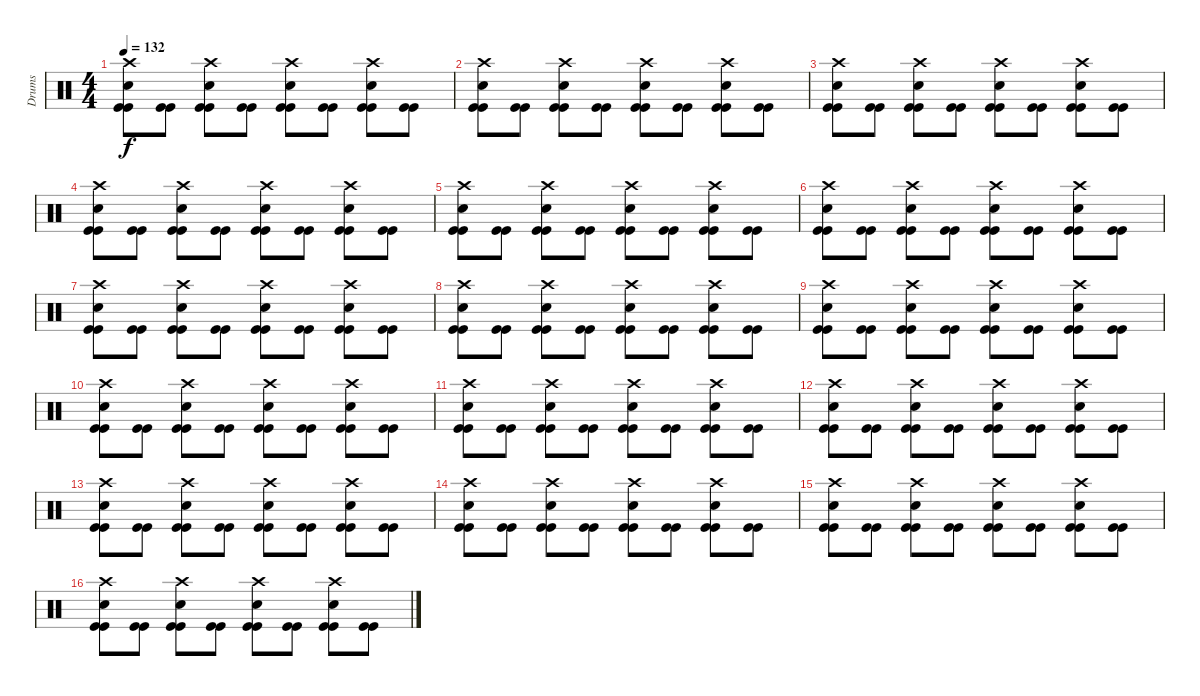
\track ("Drums" "Drums") {instrument percussion}
\staff {score}
\articulation defaults
\ts (4 4)
\tempo 132
\clef neutral
\ks c
("Crash high (hit)" "Electric Snare (hit)" "Kick (hit)" "Kick (hit)").8{dy f} ("Kick (hit)" "Kick (hit)").8 ("Crash high (hit)" "Electric Snare (hit)" "Kick (hit)" "Kick (hit)").8 ("Kick (hit)" "Kick (hit)").8 ("Crash high (hit)" "Electric Snare (hit)" "Kick (hit)" "Kick (hit)").8 ("Kick (hit)" "Kick (hit)").8 ("Crash high (hit)" "Electric Snare (hit)" "Kick (hit)" "Kick (hit)").8 ("Kick (hit)" "Kick (hit)").8 |
("Crash high (hit)" "Electric Snare (hit)" "Kick (hit)" "Kick (hit)").8 ("Kick (hit)" "Kick (hit)").8 ("Crash high (hit)" "Electric Snare (hit)" "Kick (hit)" "Kick (hit)").8 ("Kick (hit)" "Kick (hit)").8 ("Crash high (hit)" "Electric Snare (hit)" "Kick (hit)" "Kick (hit)").8 ("Kick (hit)" "Kick (hit)").8 ("Crash high (hit)" "Electric Snare (hit)" "Kick (hit)" "Kick (hit)").8 ("Kick (hit)" "Kick (hit)").8 |
("Crash high (hit)" "Electric Snare (hit)" "Kick (hit)" "Kick (hit)").8 ("Kick (hit)" "Kick (hit)").8 ("Crash high (hit)" "Electric Snare (hit)" "Kick (hit)" "Kick (hit)").8 ("Kick (hit)" "Kick (hit)").8 ("Crash high (hit)" "Electric Snare (hit)" "Kick (hit)" "Kick (hit)").8 ("Kick (hit)" "Kick (hit)").8 ("Crash high (hit)" "Electric Snare (hit)" "Kick (hit)" "Kick (hit)").8 ("Kick (hit)" "Kick (hit)").8 |
("Crash high (hit)" "Electric Snare (hit)" "Kick (hit)" "Kick (hit)").8 ("Kick (hit)" "Kick (hit)").8 ("Crash high (hit)" "Electric Snare (hit)" "Kick (hit)" "Kick (hit)").8 ("Kick (hit)" "Kick (hit)").8 ("Crash high (hit)" "Electric Snare (hit)" "Kick (hit)" "Kick (hit)").8 ("Kick (hit)" "Kick (hit)").8 ("Crash high (hit)" "Electric Snare (hit)" "Kick (hit)" "Kick (hit)").8 ("Kick (hit)" "Kick (hit)").8 |
("Crash high (hit)" "Electric Snare (hit)" "Kick (hit)" "Kick (hit)").8 ("Kick (hit)" "Kick (hit)").8 ("Crash high (hit)" "Electric Snare (hit)" "Kick (hit)" "Kick (hit)").8 ("Kick (hit)" "Kick (hit)").8 ("Crash high (hit)" "Electric Snare (hit)" "Kick (hit)" "Kick (hit)").8 ("Kick (hit)" "Kick (hit)").8 ("Crash high (hit)" "Electric Snare (hit)" "Kick (hit)" "Kick (hit)").8 ("Kick (hit)" "Kick (hit)").8 |
("Crash high (hit)" "Electric Snare (hit)" "Kick (hit)" "Kick (hit)").8 ("Kick (hit)" "Kick (hit)").8 ("Crash high (hit)" "Electric Snare (hit)" "Kick (hit)" "Kick (hit)").8 ("Kick (hit)" "Kick (hit)").8 ("Crash high (hit)" "Electric Snare (hit)" "Kick (hit)" "Kick (hit)").8 ("Kick (hit)" "Kick (hit)").8 ("Crash high (hit)" "Electric Snare (hit)" "Kick (hit)" "Kick (hit)").8 ("Kick (hit)" "Kick (hit)").8 |
("Crash high (hit)" "Electric Snare (hit)" "Kick (hit)" "Kick (hit)").8 ("Kick (hit)" "Kick (hit)").8 ("Crash high (hit)" "Electric Snare (hit)" "Kick (hit)" "Kick (hit)").8 ("Kick (hit)" "Kick (hit)").8 ("Crash high (hit)" "Electric Snare (hit)" "Kick (hit)" "Kick (hit)").8 ("Kick (hit)" "Kick (hit)").8 ("Crash high (hit)" "Electric Snare (hit)" "Kick (hit)" "Kick (hit)").8 ("Kick (hit)" "Kick (hit)").8 |
("Crash high (hit)" "Electric Snare (hit)" "Kick (hit)" "Kick (hit)").8 ("Kick (hit)" "Kick (hit)").8 ("Crash high (hit)" "Electric Snare (hit)" "Kick (hit)" "Kick (hit)").8 ("Kick (hit)" "Kick (hit)").8 ("Crash high (hit)" "Electric Snare (hit)" "Kick (hit)" "Kick (hit)").8 ("Kick (hit)" "Kick (hit)").8 ("Crash high (hit)" "Electric Snare (hit)" "Kick (hit)" "Kick (hit)").8 ("Kick (hit)" "Kick (hit)").8 |
("Crash high (hit)" "Electric Snare (hit)" "Kick (hit)" "Kick (hit)").8 ("Kick (hit)" "Kick (hit)").8 ("Crash high (hit)" "Electric Snare (hit)" "Kick (hit)" "Kick (hit)").8 ("Kick (hit)" "Kick (hit)").8 ("Crash high (hit)" "Electric Snare (hit)" "Kick (hit)" "Kick (hit)").8 ("Kick (hit)" "Kick (hit)").8 ("Crash high (hit)" "Electric Snare (hit)" "Kick (hit)" "Kick (hit)").8 ("Kick (hit)" "Kick (hit)").8 |
("Crash high (hit)" "Electric Snare (hit)" "Kick (hit)" "Kick (hit)").8 ("Kick (hit)" "Kick (hit)").8 ("Crash high (hit)" "Electric Snare (hit)" "Kick (hit)" "Kick (hit)").8 ("Kick (hit)" "Kick (hit)").8 ("Crash high (hit)" "Electric Snare (hit)" "Kick (hit)" "Kick (hit)").8 ("Kick (hit)" "Kick (hit)").8 ("Crash high (hit)" "Electric Snare (hit)" "Kick (hit)" "Kick (hit)").8 ("Kick (hit)" "Kick (hit)").8 |
("Crash high (hit)" "Electric Snare (hit)" "Kick (hit)" "Kick (hit)").8 ("Kick (hit)" "Kick (hit)").8 ("Crash high (hit)" "Electric Snare (hit)" "Kick (hit)" "Kick (hit)").8 ("Kick (hit)" "Kick (hit)").8 ("Crash high (hit)" "Electric Snare (hit)" "Kick (hit)" "Kick (hit)").8 ("Kick (hit)" "Kick (hit)").8 ("Crash high (hit)" "Electric Snare (hit)" "Kick (hit)" "Kick (hit)").8 ("Kick (hit)" "Kick (hit)").8 |
("Crash high (hit)" "Electric Snare (hit)" "Kick (hit)" "Kick (hit)").8 ("Kick (hit)" "Kick (hit)").8 ("Crash high (hit)" "Electric Snare (hit)" "Kick (hit)" "Kick (hit)").8 ("Kick (hit)" "Kick (hit)").8 ("Crash high (hit)" "Electric Snare (hit)" "Kick (hit)" "Kick (hit)").8 ("Kick (hit)" "Kick (hit)").8 ("Crash high (hit)" "Electric Snare (hit)" "Kick (hit)" "Kick (hit)").8 ("Kick (hit)" "Kick (hit)").8 |
("Crash high (hit)" "Electric Snare (hit)" "Kick (hit)" "Kick (hit)").8 ("Kick (hit)" "Kick (hit)").8 ("Crash high (hit)" "Electric Snare (hit)" "Kick (hit)" "Kick (hit)").8 ("Kick (hit)" "Kick (hit)").8 ("Crash high (hit)" "Electric Snare (hit)" "Kick (hit)" "Kick (hit)").8 ("Kick (hit)" "Kick (hit)").8 ("Crash high (hit)" "Electric Snare (hit)" "Kick (hit)" "Kick (hit)").8 ("Kick (hit)" "Kick (hit)").8 |
("Crash high (hit)" "Electric Snare (hit)" "Kick (hit)" "Kick (hit)").8 ("Kick (hit)" "Kick (hit)").8 ("Crash high (hit)" "Electric Snare (hit)" "Kick (hit)" "Kick (hit)").8 ("Kick (hit)" "Kick (hit)").8 ("Crash high (hit)" "Electric Snare (hit)" "Kick (hit)" "Kick (hit)").8 ("Kick (hit)" "Kick (hit)").8 ("Crash high (hit)" "Electric Snare (hit)" "Kick (hit)" "Kick (hit)").8 ("Kick (hit)" "Kick (hit)").8 |
("Crash high (hit)" "Electric Snare (hit)" "Kick (hit)" "Kick (hit)").8 ("Kick (hit)" "Kick (hit)").8 ("Crash high (hit)" "Electric Snare (hit)" "Kick (hit)" "Kick (hit)").8 ("Kick (hit)" "Kick (hit)").8 ("Crash high (hit)" "Electric Snare (hit)" "Kick (hit)" "Kick (hit)").8 ("Kick (hit)" "Kick (hit)").8 ("Crash high (hit)" "Electric Snare (hit)" "Kick (hit)" "Kick (hit)").8 ("Kick (hit)" "Kick (hit)").8 |
("Crash high (hit)" "Electric Snare (hit)" "Kick (hit)" "Kick (hit)").8 ("Kick (hit)" "Kick (hit)").8 ("Crash high (hit)" "Electric Snare (hit)" "Kick (hit)" "Kick (hit)").8 ("Kick (hit)" "Kick (hit)").8 ("Crash high (hit)" "Electric Snare (hit)" "Kick (hit)" "Kick (hit)").8 ("Kick (hit)" "Kick (hit)").8 ("Crash high (hit)" "Electric Snare (hit)" "Kick (hit)" "Kick (hit)").8 ("Kick (hit)" "Kick (hit)").8
